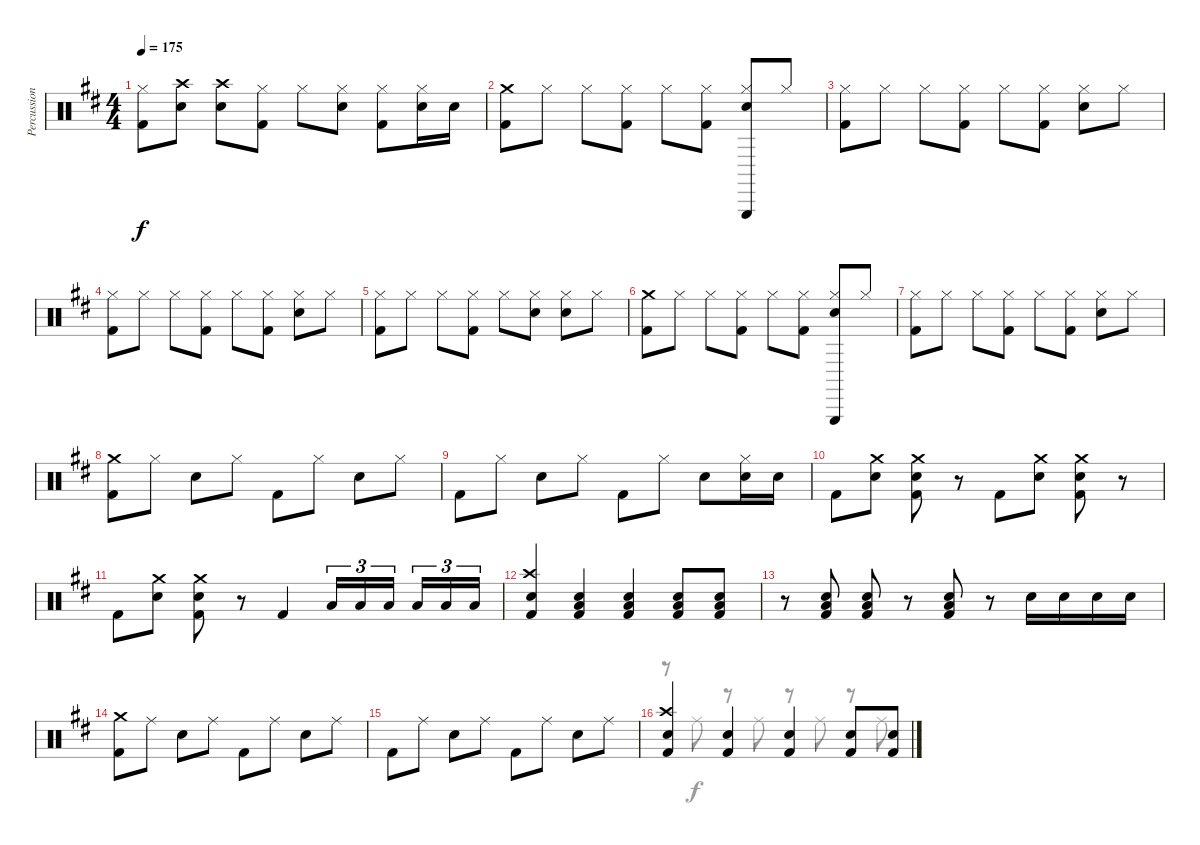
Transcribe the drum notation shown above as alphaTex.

\track ("Percussion" "Percussion") {instrument percussion}
\staff {score}
\articulation defaults
\voice
\ts (4 4)
\tempo 175
\clef neutral
\ks d
("Hi-Hat (closed)" "Kick (hit) 2").8{dy f} ("Crash high (hit)" "Electric Snare (hit)").8 ("Crash high (hit)" "Electric Snare (hit)").8 ("Hi-Hat (closed)" "Kick (hit) 2").8 "Hi-Hat (closed)".8 ("Hi-Hat (closed)" "Electric Snare (hit)").8 ("Hi-Hat (closed)" "Kick (hit) 2").8 ("Hi-Hat (closed)" "Electric Snare (hit)").16 "Electric Snare (hit)".16 |
("Crash medium (hit)" "Kick (hit) 2").8 "Hi-Hat (closed)".8 "Hi-Hat (closed)".8 ("Hi-Hat (closed)" "Kick (hit) 2").8 "Hi-Hat (closed)".8 ("Hi-Hat (closed)" "Kick (hit) 2").8 ("Hi-Hat (closed)" "Electric Snare (hit)" "Triangle (hit)").8 "Hi-Hat (closed)".8 |
("Hi-Hat (closed)" "Kick (hit) 2").8 "Hi-Hat (closed)".8 "Hi-Hat (closed)".8 ("Hi-Hat (closed)" "Kick (hit) 2").8 "Hi-Hat (closed)".8 ("Hi-Hat (closed)" "Kick (hit) 2").8 ("Hi-Hat (closed)" "Electric Snare (hit)").8 "Hi-Hat (closed)".8 |
("Hi-Hat (closed)" "Kick (hit) 2").8 "Hi-Hat (closed)".8 "Hi-Hat (closed)".8 ("Hi-Hat (closed)" "Kick (hit) 2").8 "Hi-Hat (closed)".8 ("Hi-Hat (closed)" "Kick (hit) 2").8 ("Hi-Hat (closed)" "Electric Snare (hit)").8 "Hi-Hat (closed)".8 |
("Hi-Hat (closed)" "Kick (hit) 2").8 "Hi-Hat (closed)".8 "Hi-Hat (closed)".8 ("Hi-Hat (closed)" "Kick (hit) 2").8 "Hi-Hat (closed)".8 ("Hi-Hat (closed)" "Electric Snare (hit)").8 ("Hi-Hat (closed)" "Electric Snare (hit)").8 "Hi-Hat (closed)".8 |
("Crash medium (hit)" "Kick (hit) 2").8 "Hi-Hat (closed)".8 "Hi-Hat (closed)".8 ("Hi-Hat (closed)" "Kick (hit) 2").8 "Hi-Hat (closed)".8 ("Hi-Hat (closed)" "Kick (hit) 2").8 ("Hi-Hat (closed)" "Electric Snare (hit)" "Triangle (hit)").8 "Hi-Hat (closed)".8 |
("Hi-Hat (closed)" "Kick (hit) 2").8 "Hi-Hat (closed)".8 "Hi-Hat (closed)".8 ("Hi-Hat (closed)" "Kick (hit) 2").8 "Hi-Hat (closed)".8 ("Hi-Hat (closed)" "Kick (hit) 2").8 ("Hi-Hat (closed)" "Electric Snare (hit)").8 "Hi-Hat (closed)".8 |
("Crash medium (hit)" "Kick (hit) 2").8 "Hi-Hat (closed)".8 "Electric Snare (hit)".8 "Hi-Hat (closed)".8 "Kick (hit) 2".8 "Hi-Hat (closed)".8 "Electric Snare (hit)".8 "Hi-Hat (closed)".8 |
"Kick (hit) 2".8 "Hi-Hat (closed)".8 "Electric Snare (hit)".8 "Hi-Hat (closed)".8 "Kick (hit) 2".8 "Hi-Hat (closed)".8 "Electric Snare (hit)".8 ("Hi-Hat (closed)" "Electric Snare (hit)").16 "Electric Snare (hit)".16 |
"Kick (hit) 2".8 ("Crash medium (hit)" "Electric Snare (hit)").8 ("Crash medium (hit)" "Electric Snare (hit)" "Kick (hit) 2").8 r.8 "Kick (hit) 2".8 ("Crash medium (hit)" "Electric Snare (hit)").8 ("Crash medium (hit)" "Electric Snare (hit)" "Kick (hit) 2").8 r.8 |
"Kick (hit) 2".8 ("Crash medium (hit)" "Electric Snare (hit)").8 ("Crash medium (hit)" "Electric Snare (hit)" "Kick (hit) 2").8 r.8 "Kick (hit) 2".4 "Low Floor Tom (hit)".16{tu (3 2)} "Low Floor Tom (hit)".16{tu (3 2)} "Low Floor Tom (hit)".16{tu (3 2) beam splitsecondary} "Low Floor Tom (hit)".16{tu (3 2)} "Low Floor Tom (hit)".16{tu (3 2)} "Low Floor Tom (hit)".16{tu (3 2)} |
("Crash high (hit)" "Electric Snare (hit)" "Kick (hit) 2").4 ("Low Floor Tom (hit)" "Electric Snare (hit)" "Kick (hit) 2").4 ("Low Floor Tom (hit)" "Electric Snare (hit)" "Kick (hit) 2").4 ("Low Floor Tom (hit)" "Electric Snare (hit)" "Kick (hit) 2").8 ("Low Floor Tom (hit)" "Electric Snare (hit)" "Kick (hit) 2").8 |
r.8 ("Low Floor Tom (hit)" "Electric Snare (hit)" "Kick (hit) 2").8 ("Low Floor Tom (hit)" "Electric Snare (hit)" "Kick (hit) 2").8 r.8 ("Low Floor Tom (hit)" "Electric Snare (hit)" "Kick (hit) 2").8 r.8 "Electric Snare (hit)".16 "Electric Snare (hit)".16 "Electric Snare (hit)".16 "Electric Snare (hit)".16 |
("Crash medium (hit)" "Kick (hit) 2").8 "Ride (middle)".8 "Electric Snare (hit)".8 "Ride (middle)".8 "Kick (hit) 2".8 "Ride (middle)".8 "Electric Snare (hit)".8 "Ride (middle)".8 |
"Kick (hit) 2".8 "Ride (middle)".8 "Electric Snare (hit)".8 "Ride (middle)".8 "Kick (hit) 2".8 "Ride (middle)".8 "Electric Snare (hit)".8 "Ride (middle)".8 |
("Crash high (hit)" "Electric Snare (hit)" "Kick (hit) 2").4 ("Electric Snare (hit)" "Kick (hit) 2").4 ("Electric Snare (hit)" "Kick (hit) 2").4 ("Electric Snare (hit)" "Kick (hit) 2").8 ("Electric Snare (hit)" "Kick (hit) 2").8
\voice
\clef neutral
\ottava regular
\simile none
\ks d
|
|
|
|
|
|
|
|
|
|
|
|
|
|
|
r.8 "Ride (middle)".8 r.8 "Ride (middle)".8 r.8 "Ride (middle)".8 r.8 "Ride (middle)".8
